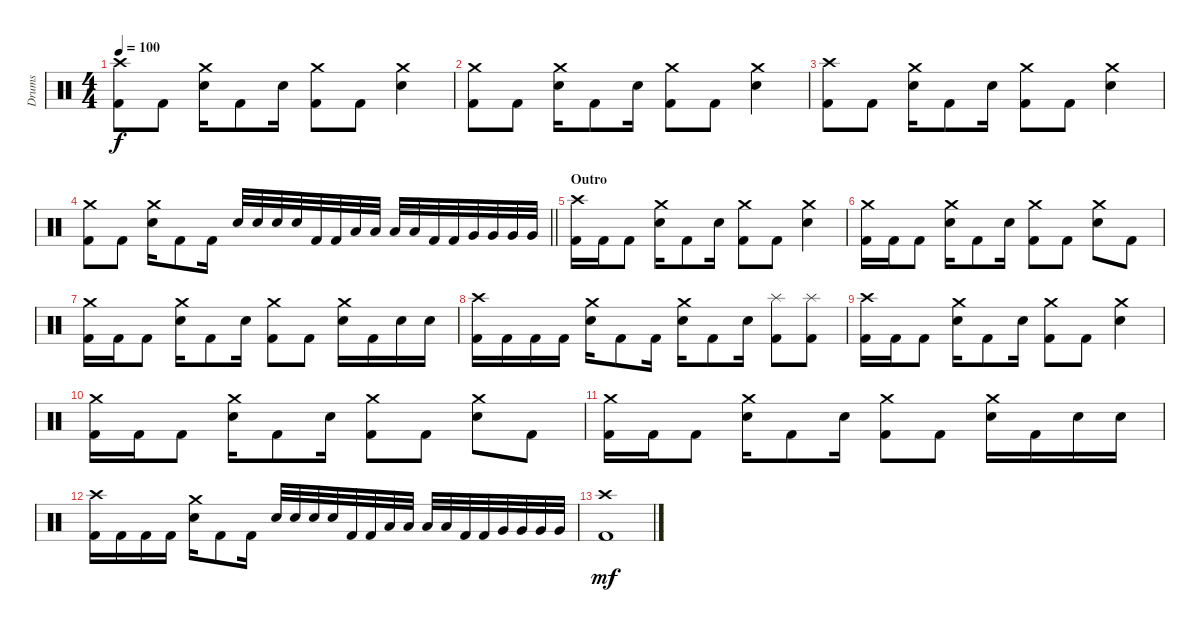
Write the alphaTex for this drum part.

\track ("Drums" "Drums") {instrument percussion}
\staff {score}
\articulation defaults
\ts (4 4)
\tempo 100
\clef neutral
\ks c
("Crash high (hit)" "Kick (hit) 2").8{dy f} "Kick (hit) 2".8 ("Crash medium (hit)" "Electric Snare (hit)").16 "Kick (hit) 2".8 "Electric Snare (hit)".16 ("Crash medium (hit)" "Kick (hit) 2").8 "Kick (hit) 2".8 ("Crash medium (hit)" "Electric Snare (hit)").4 |
("Crash medium (hit)" "Kick (hit) 2").8 "Kick (hit) 2".8 ("Crash medium (hit)" "Electric Snare (hit)").16 "Kick (hit) 2".8 "Electric Snare (hit)".16 ("Crash medium (hit)" "Kick (hit) 2").8 "Kick (hit) 2".8 ("Crash medium (hit)" "Electric Snare (hit)").4 |
("Crash high (hit)" "Kick (hit) 2").8 "Kick (hit) 2".8 ("Crash medium (hit)" "Electric Snare (hit)").16 "Kick (hit) 2".8 "Electric Snare (hit)".16 ("Crash medium (hit)" "Kick (hit) 2").8 "Kick (hit) 2".8 ("Crash medium (hit)" "Electric Snare (hit)").4 |
\barLineRight lightlight
("Crash medium (hit)" "Kick (hit) 2").8 "Kick (hit) 2".8 ("Crash medium (hit)" "Electric Snare (hit)").16 "Kick (hit) 2".8 "Kick (hit) 2".16 "Electric Snare (hit)".32 "Electric Snare (hit)".32 "Electric Snare (hit)".32 "Electric Snare (hit)".32 "Kick (hit) 2".32 "Kick (hit) 2".32 "Low Tom (hit)".32 "Low Tom (hit)".32 "Low Tom (hit)".32 "Low Tom (hit)".32 "Kick (hit) 2".32 "Kick (hit) 2".32 "Very Low Tom (hit)".32 "Very Low Tom (hit)".32 "Very Low Tom (hit)".32 "Very Low Tom (hit)".32 |
\section ("" "Outro")
("Crash high (hit)" "Kick (hit) 2").16 "Kick (hit) 2".16 "Kick (hit) 2".8 ("Crash medium (hit)" "Electric Snare (hit)").16 "Kick (hit) 2".8 "Electric Snare (hit)".16 ("Crash medium (hit)" "Kick (hit) 2").8 "Kick (hit) 2".8 ("Crash medium (hit)" "Electric Snare (hit)").4 |
("Crash medium (hit)" "Kick (hit) 2").16 "Kick (hit) 2".16 "Kick (hit) 2".8 ("Crash medium (hit)" "Electric Snare (hit)").16 "Kick (hit) 2".8 "Electric Snare (hit)".16 ("Crash medium (hit)" "Kick (hit) 2").8 "Kick (hit) 2".8 ("Crash medium (hit)" "Electric Snare (hit)").8 "Kick (hit) 2".8 |
("Crash medium (hit)" "Kick (hit) 2").16 "Kick (hit) 2".16 "Kick (hit) 2".8 ("Crash medium (hit)" "Electric Snare (hit)").16 "Kick (hit) 2".8 "Electric Snare (hit)".16 ("Crash medium (hit)" "Kick (hit) 2").8 "Kick (hit) 2".8 ("Crash medium (hit)" "Electric Snare (hit)").16 "Kick (hit) 2".16 "Electric Snare (hit)".16 "Electric Snare (hit)".16 |
("Crash high (hit)" "Kick (hit) 2").16 "Kick (hit) 2".16 "Kick (hit) 2".16 "Kick (hit) 2".16 ("Crash medium (hit)" "Electric Snare (hit)").16 "Kick (hit) 2".8 "Kick (hit) 2".16 ("Crash medium (hit)" "Electric Snare (hit)").16 "Kick (hit) 2".8 "Electric Snare (hit)".16 ("Splash (hit)" "Kick (hit) 2").8 ("Splash (hit)" "Kick (hit) 2").8 |
("Crash high (hit)" "Kick (hit) 2").16 "Kick (hit) 2".16 "Kick (hit) 2".8 ("Crash medium (hit)" "Electric Snare (hit)").16 "Kick (hit) 2".8 "Electric Snare (hit)".16 ("Crash medium (hit)" "Kick (hit) 2").8 "Kick (hit) 2".8 ("Crash medium (hit)" "Electric Snare (hit)").4 |
("Crash medium (hit)" "Kick (hit) 2").16 "Kick (hit) 2".16 "Kick (hit) 2".8 ("Crash medium (hit)" "Electric Snare (hit)").16 "Kick (hit) 2".8 "Electric Snare (hit)".16 ("Crash medium (hit)" "Kick (hit) 2").8 "Kick (hit) 2".8 ("Crash medium (hit)" "Electric Snare (hit)").8 "Kick (hit) 2".8 |
("Crash medium (hit)" "Kick (hit) 2").16 "Kick (hit) 2".16 "Kick (hit) 2".8 ("Crash medium (hit)" "Electric Snare (hit)").16 "Kick (hit) 2".8 "Electric Snare (hit)".16 ("Crash medium (hit)" "Kick (hit) 2").8 "Kick (hit) 2".8 ("Crash medium (hit)" "Electric Snare (hit)").16 "Kick (hit) 2".16 "Electric Snare (hit)".16 "Electric Snare (hit)".16 |
("Crash high (hit)" "Kick (hit) 2").16 "Kick (hit) 2".16 "Kick (hit) 2".16 "Kick (hit) 2".16 ("Crash medium (hit)" "Electric Snare (hit)").16 "Kick (hit) 2".8 "Kick (hit) 2".16 "Electric Snare (hit)".32 "Electric Snare (hit)".32 "Electric Snare (hit)".32 "Electric Snare (hit)".32 "Kick (hit) 2".32 "Kick (hit) 2".32 "Low Tom (hit)".32 "Low Tom (hit)".32 "Low Tom (hit)".32 "Low Tom (hit)".32 "Kick (hit) 2".32 "Kick (hit) 2".32 "Very Low Tom (hit)".32 "Very Low Tom (hit)".32 "Very Low Tom (hit)".32 "Very Low Tom (hit)".32 |
("Crash high (hit)" "Kick (hit) 2").1{dy mf}
